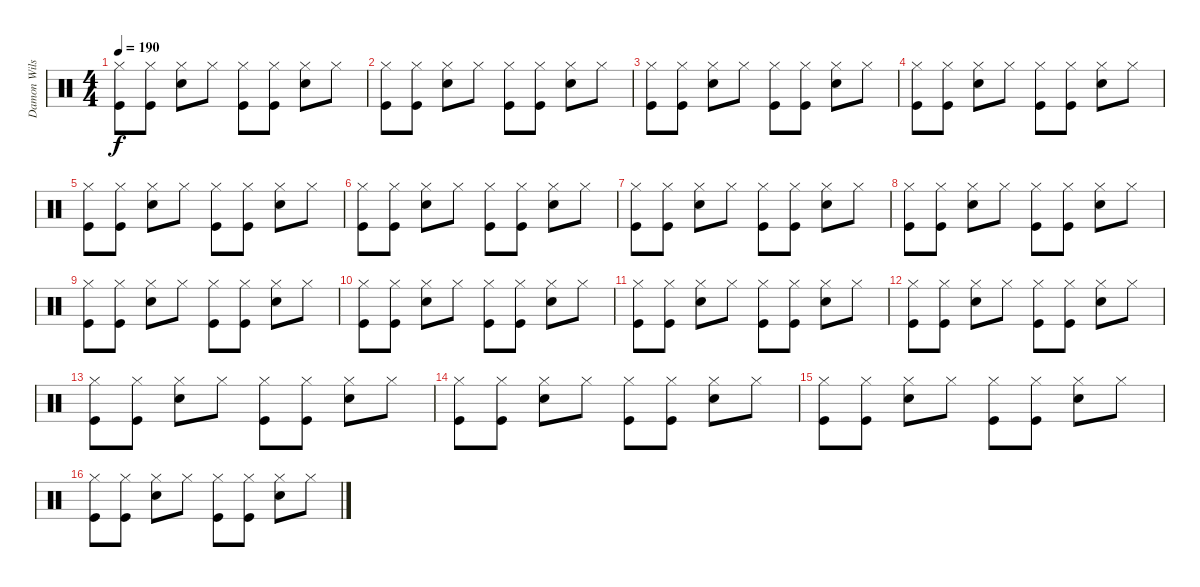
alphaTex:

\track ("Damon Wilson" "Damon Wils") {instrument percussion}
\staff {score}
\articulation defaults
\ts (4 4)
\tempo 190
\clef neutral
\ks c
("Hi-Hat (closed)" "Kick (hit)").8{dy f} ("Hi-Hat (closed)" "Kick (hit)").8 ("Hi-Hat (closed)" "Snare (hit) 2").8 "Hi-Hat (closed)".8 ("Hi-Hat (closed)" "Kick (hit)").8 ("Hi-Hat (closed)" "Kick (hit)").8 ("Hi-Hat (closed)" "Snare (hit) 2").8 "Hi-Hat (closed)".8 |
("Hi-Hat (closed)" "Kick (hit)").8 ("Hi-Hat (closed)" "Kick (hit)").8 ("Hi-Hat (closed)" "Snare (hit) 2").8 "Hi-Hat (closed)".8 ("Hi-Hat (closed)" "Kick (hit)").8 ("Hi-Hat (closed)" "Kick (hit)").8 ("Hi-Hat (closed)" "Snare (hit) 2").8 "Hi-Hat (closed)".8 |
("Hi-Hat (closed)" "Kick (hit)").8 ("Hi-Hat (closed)" "Kick (hit)").8 ("Hi-Hat (closed)" "Snare (hit) 2").8 "Hi-Hat (closed)".8 ("Hi-Hat (closed)" "Kick (hit)").8 ("Hi-Hat (closed)" "Kick (hit)").8 ("Hi-Hat (closed)" "Snare (hit) 2").8 "Hi-Hat (closed)".8 |
("Hi-Hat (closed)" "Kick (hit)").8 ("Hi-Hat (closed)" "Kick (hit)").8 ("Hi-Hat (closed)" "Snare (hit) 2").8 "Hi-Hat (closed)".8 ("Hi-Hat (closed)" "Kick (hit)").8 ("Hi-Hat (closed)" "Kick (hit)").8 ("Hi-Hat (closed)" "Snare (hit) 2").8 "Hi-Hat (closed)".8 |
("Hi-Hat (closed)" "Kick (hit)").8 ("Hi-Hat (closed)" "Kick (hit)").8 ("Hi-Hat (closed)" "Snare (hit) 2").8 "Hi-Hat (closed)".8 ("Hi-Hat (closed)" "Kick (hit)").8 ("Hi-Hat (closed)" "Kick (hit)").8 ("Hi-Hat (closed)" "Snare (hit) 2").8 "Hi-Hat (closed)".8 |
("Hi-Hat (closed)" "Kick (hit)").8 ("Hi-Hat (closed)" "Kick (hit)").8 ("Hi-Hat (closed)" "Snare (hit) 2").8 "Hi-Hat (closed)".8 ("Hi-Hat (closed)" "Kick (hit)").8 ("Hi-Hat (closed)" "Kick (hit)").8 ("Hi-Hat (closed)" "Snare (hit) 2").8 "Hi-Hat (closed)".8 |
("Hi-Hat (closed)" "Kick (hit)").8 ("Hi-Hat (closed)" "Kick (hit)").8 ("Hi-Hat (closed)" "Snare (hit) 2").8 "Hi-Hat (closed)".8 ("Hi-Hat (closed)" "Kick (hit)").8 ("Hi-Hat (closed)" "Kick (hit)").8 ("Hi-Hat (closed)" "Snare (hit) 2").8 "Hi-Hat (closed)".8 |
("Hi-Hat (closed)" "Kick (hit)").8 ("Hi-Hat (closed)" "Kick (hit)").8 ("Hi-Hat (closed)" "Snare (hit) 2").8 "Hi-Hat (closed)".8 ("Hi-Hat (closed)" "Kick (hit)").8 ("Hi-Hat (closed)" "Kick (hit)").8 ("Hi-Hat (closed)" "Snare (hit) 2").8 "Hi-Hat (closed)".8 |
("Hi-Hat (closed)" "Kick (hit)").8 ("Hi-Hat (closed)" "Kick (hit)").8 ("Hi-Hat (closed)" "Snare (hit) 2").8 "Hi-Hat (closed)".8 ("Hi-Hat (closed)" "Kick (hit)").8 ("Hi-Hat (closed)" "Kick (hit)").8 ("Hi-Hat (closed)" "Snare (hit) 2").8 "Hi-Hat (closed)".8 |
("Hi-Hat (closed)" "Kick (hit)").8 ("Hi-Hat (closed)" "Kick (hit)").8 ("Hi-Hat (closed)" "Snare (hit) 2").8 "Hi-Hat (closed)".8 ("Hi-Hat (closed)" "Kick (hit)").8 ("Hi-Hat (closed)" "Kick (hit)").8 ("Hi-Hat (closed)" "Snare (hit) 2").8 "Hi-Hat (closed)".8 |
("Hi-Hat (closed)" "Kick (hit)").8 ("Hi-Hat (closed)" "Kick (hit)").8 ("Hi-Hat (closed)" "Snare (hit) 2").8 "Hi-Hat (closed)".8 ("Hi-Hat (closed)" "Kick (hit)").8 ("Hi-Hat (closed)" "Kick (hit)").8 ("Hi-Hat (closed)" "Snare (hit) 2").8 "Hi-Hat (closed)".8 |
("Hi-Hat (closed)" "Kick (hit)").8 ("Hi-Hat (closed)" "Kick (hit)").8 ("Hi-Hat (closed)" "Snare (hit) 2").8 "Hi-Hat (closed)".8 ("Hi-Hat (closed)" "Kick (hit)").8 ("Hi-Hat (closed)" "Kick (hit)").8 ("Hi-Hat (closed)" "Snare (hit) 2").8 "Hi-Hat (closed)".8 |
("Hi-Hat (closed)" "Kick (hit)").8 ("Hi-Hat (closed)" "Kick (hit)").8 ("Hi-Hat (closed)" "Snare (hit) 2").8 "Hi-Hat (closed)".8 ("Hi-Hat (closed)" "Kick (hit)").8 ("Hi-Hat (closed)" "Kick (hit)").8 ("Hi-Hat (closed)" "Snare (hit) 2").8 "Hi-Hat (closed)".8 |
("Hi-Hat (closed)" "Kick (hit)").8 ("Hi-Hat (closed)" "Kick (hit)").8 ("Hi-Hat (closed)" "Snare (hit) 2").8 "Hi-Hat (closed)".8 ("Hi-Hat (closed)" "Kick (hit)").8 ("Hi-Hat (closed)" "Kick (hit)").8 ("Hi-Hat (closed)" "Snare (hit) 2").8 "Hi-Hat (closed)".8 |
("Hi-Hat (closed)" "Kick (hit)").8 ("Hi-Hat (closed)" "Kick (hit)").8 ("Hi-Hat (closed)" "Snare (hit) 2").8 "Hi-Hat (closed)".8 ("Hi-Hat (closed)" "Kick (hit)").8 ("Hi-Hat (closed)" "Kick (hit)").8 ("Hi-Hat (closed)" "Snare (hit) 2").8 "Hi-Hat (closed)".8 |
("Hi-Hat (closed)" "Kick (hit)").8 ("Hi-Hat (closed)" "Kick (hit)").8 ("Hi-Hat (closed)" "Snare (hit) 2").8 "Hi-Hat (closed)".8 ("Hi-Hat (closed)" "Kick (hit)").8 ("Hi-Hat (closed)" "Kick (hit)").8 ("Hi-Hat (closed)" "Snare (hit) 2").8 "Hi-Hat (closed)".8
